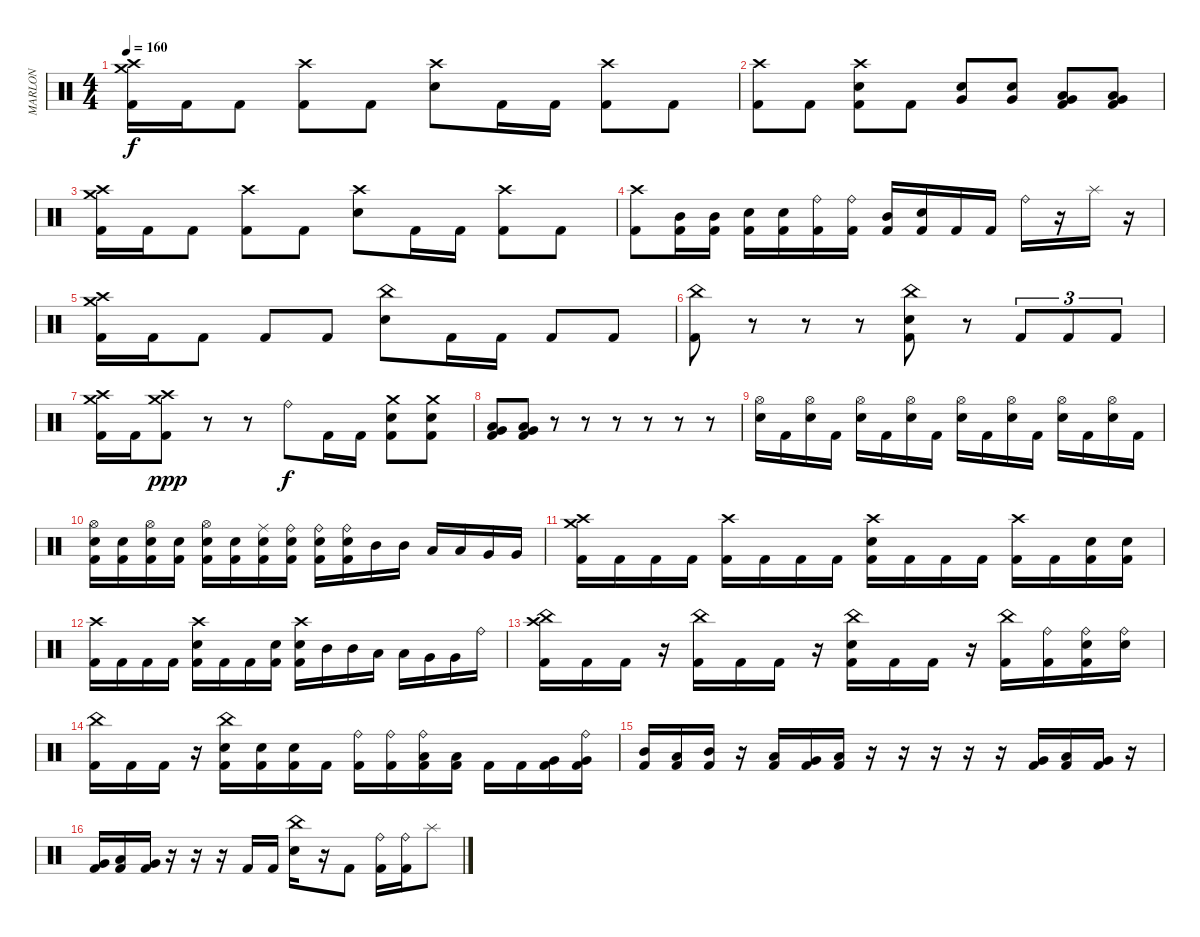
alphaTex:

\track ("MARLON" "MARLON") {instrument percussion}
\staff {score}
\articulation defaults
\ts (4 4)
\tempo 160
\clef neutral
\ks c
("Crash medium (hit)" "Crash high (hit)" "Kick (hit) 2").16{dy f} "Kick (hit) 2".16 "Kick (hit) 2".8 ("Crash high (hit)" "Kick (hit) 2").8 "Kick (hit) 2".8 ("Crash high (hit)" "Electric Snare (hit)").8 "Kick (hit) 2".16 "Kick (hit) 2".16 ("Crash high (hit)" "Kick (hit) 2").8 "Kick (hit) 2".8 |
("Crash high (hit)" "Kick (hit) 2").8 "Kick (hit) 2".8 ("Crash high (hit)" "Electric Snare (hit)" "Kick (hit) 2").8 "Kick (hit) 2".8 ("Very Low Tom (hit)" "Electric Snare (hit)").8 ("Very Low Tom (hit)" "Electric Snare (hit)").8 ("Low Tom (hit)" "Very Low Tom (hit)" "Kick (hit) 2").8 ("Low Tom (hit)" "Very Low Tom (hit)" "Kick (hit) 2").8 |
("Crash medium (hit)" "Crash high (hit)" "Kick (hit) 2").16 "Kick (hit) 2".16 "Kick (hit) 2".8 ("Crash high (hit)" "Kick (hit) 2").8 "Kick (hit) 2".8 ("Crash high (hit)" "Electric Snare (hit)").8 "Kick (hit) 2".16 "Kick (hit) 2".16 ("Crash high (hit)" "Kick (hit) 2").8 "Kick (hit) 2".8 |
("Crash high (hit)" "Kick (hit) 2").8 ("Mid Tom (hit)" "Kick (hit) 2").16 ("Mid Tom (hit)" "Kick (hit) 2").16 ("Electric Snare (hit)" "Kick (hit) 2").16 ("Electric Snare (hit)" "Kick (hit) 2").16 ("Ride (bell)" "Kick (hit) 2").16 ("Ride (bell)" "Kick (hit) 2").16 ("Mid Tom (hit)" "Kick (hit) 2").16 ("Electric Snare (hit)" "Kick (hit) 2").16 "Kick (hit) 2".16 "Kick (hit) 2".16 "Ride (bell)".16 r.16 "Splash (hit)".16 r.16 |
("Crash medium (hit)" "Crash high (hit)" "Kick (hit) 2").16 "Kick (hit) 2".16 "Kick (hit) 2".8 "Kick (hit) 2".8 "Kick (hit) 2".8 ("China (hit)" "Electric Snare (hit)").8 "Kick (hit) 2".16 "Kick (hit) 2".16 "Kick (hit) 2".8 "Kick (hit) 2".8 |
("China (hit)" "Kick (hit) 2").8 r.8 r.8 r.8 ("China (hit)" "Electric Snare (hit)" "Kick (hit) 2").8 r.8 "Kick (hit) 2".8{tu (3 2)} "Kick (hit) 2".8{tu (3 2)} "Kick (hit) 2".8{tu (3 2)} |
("Crash medium (hit)" "Crash high (hit)" "Kick (hit) 2").16 "Kick (hit) 2".16 ("Crash medium (hit)" "Crash high (hit)" "Kick (hit) 2").8{dy ppp} r.8 r.8 "Ride (bell)".8{dy f} "Kick (hit) 2".16 "Kick (hit) 2".16 ("Crash medium (hit)" "Electric Snare (hit)" "Kick (hit) 2").8 ("Crash medium (hit)" "Electric Snare (hit)" "Kick (hit) 2").8 |
("Low Floor Tom (hit)" "Very Low Tom (hit)" "Kick (hit) 2").8 ("Low Floor Tom (hit)" "Very Low Tom (hit)" "Kick (hit) 2").8 r.8 r.8 r.8 r.8 r.8 r.8 |
("Hi-Hat (open)" "Electric Snare (hit)").16 "Kick (hit) 2".16 ("Hi-Hat (open)" "Electric Snare (hit)").16 "Kick (hit) 2".16 ("Hi-Hat (open)" "Electric Snare (hit)").16 "Kick (hit) 2".16 ("Hi-Hat (open)" "Electric Snare (hit)").16 "Kick (hit) 2".16 ("Hi-Hat (open)" "Electric Snare (hit)").16 "Kick (hit) 2".16 ("Hi-Hat (open)" "Electric Snare (hit)").16 "Kick (hit) 2".16 ("Hi-Hat (open)" "Electric Snare (hit)").16 "Kick (hit) 2".16 ("Hi-Hat (open)" "Electric Snare (hit)").16 "Kick (hit) 2".16 |
("Hi-Hat (open)" "Electric Snare (hit)" "Kick (hit) 2").16 ("Electric Snare (hit)" "Kick (hit) 2").16 ("Hi-Hat (open)" "Electric Snare (hit)" "Kick (hit) 2").16 ("Electric Snare (hit)" "Kick (hit) 2").16 ("Hi-Hat (open)" "Electric Snare (hit)" "Kick (hit) 2").16 ("Electric Snare (hit)" "Kick (hit) 2").16 ("Ride (middle)" "Electric Snare (hit)" "Kick (hit) 2").16 ("Ride (bell)" "Electric Snare (hit)" "Kick (hit) 2").16 ("Ride (bell)" "Electric Snare (hit)" "Kick (hit) 2").16 ("Ride (bell)" "Electric Snare (hit)" "Kick (hit) 2").16 "Mid Tom (hit)".16 "Mid Tom (hit)".16 "Low Tom (hit)".16 "Low Tom (hit)".16 "Very Low Tom (hit)".16 "Very Low Tom (hit)".16 |
("Crash high (hit)" "Crash medium (hit)" "Kick (hit) 2").16 "Kick (hit) 2".16 "Kick (hit) 2".16 "Kick (hit) 2".16 ("Crash high (hit)" "Kick (hit) 2").16 "Kick (hit) 2".16 "Kick (hit) 2".16 "Kick (hit) 2".16 ("Crash high (hit)" "Electric Snare (hit)" "Kick (hit) 2").16 "Kick (hit) 2".16 "Kick (hit) 2".16 "Kick (hit) 2".16 ("Crash high (hit)" "Kick (hit) 2").16 "Kick (hit) 2".16 ("Electric Snare (hit)" "Kick (hit) 2").16 ("Electric Snare (hit)" "Kick (hit) 2").16 |
("Crash high (hit)" "Kick (hit) 2").16 "Kick (hit) 2".16 "Kick (hit) 2".16 "Kick (hit) 2".16 ("Crash high (hit)" "Electric Snare (hit)" "Kick (hit) 2").16 "Kick (hit) 2".16 "Kick (hit) 2".16 ("Electric Snare (hit)" "Kick (hit) 2").16 ("Crash high (hit)" "Electric Snare (hit)" "Kick (hit) 2").16 "Mid Tom (hit)".16 "Mid Tom (hit)".16 "Low Tom (hit)".16 "Low Tom (hit)".16 "Very Low Tom (hit)".16 "Very Low Tom (hit)".16 "Ride (bell)".16 |
("China (hit)" "Crash high (hit)" "Kick (hit) 2").16 "Kick (hit) 2".16 "Kick (hit) 2".16 r.16 ("China (hit)" "Kick (hit) 2").16 "Kick (hit) 2".16 "Kick (hit) 2".16 r.16 ("China (hit)" "Electric Snare (hit)" "Kick (hit) 2").16 "Kick (hit) 2".16 "Kick (hit) 2".16 r.16 ("China (hit)" "Kick (hit) 2").16 ("Ride (bell)" "Kick (hit) 2").16 ("Ride (bell)" "Electric Snare (hit)" "Kick (hit) 2").16 ("Ride (bell)" "Electric Snare (hit)").16 |
("China (hit)" "Kick (hit) 2").16 "Kick (hit) 2".16 "Kick (hit) 2".16 r.16 ("China (hit)" "Electric Snare (hit)" "Kick (hit) 2").16 ("Electric Snare (hit)" "Kick (hit) 2").16 ("Electric Snare (hit)" "Kick (hit) 2").16 "Kick (hit) 2".16 ("Ride (bell)" "Kick (hit) 2").16 ("Ride (bell)" "Kick (hit) 2").16 ("Ride (bell)" "Low Tom (hit)" "Kick (hit) 2").16 ("Low Tom (hit)" "Kick (hit) 2").16 "Kick (hit) 2".16 "Kick (hit) 2".16 ("Very Low Tom (hit)" "Kick (hit) 2").16 ("Ride (bell)" "Very Low Tom (hit)" "Kick (hit) 2").16 |
("Mid Tom (hit)" "Kick (hit) 2").16 ("Low Tom (hit)" "Kick (hit) 2").16 ("Mid Tom (hit)" "Kick (hit) 2").16 r.16 ("Low Tom (hit)" "Kick (hit) 2").16 ("Very Low Tom (hit)" "Kick (hit) 2").16 ("Low Tom (hit)" "Kick (hit) 2").16 r.16 r.16 r.16 r.16 r.16 ("Very Low Tom (hit)" "Kick (hit) 2").16 ("Low Floor Tom (hit)" "Kick (hit) 2").16 ("Very Low Tom (hit)" "Kick (hit) 2").16 r.16 |
("Very Low Tom (hit)" "Kick (hit) 2").16 ("Low Floor Tom (hit)" "Kick (hit) 2").16 ("Very Low Tom (hit)" "Kick (hit) 2").16 r.16 r.16 r.16 "Kick (hit) 2".16 "Kick (hit) 2".16 ("China (hit)" "Electric Snare (hit)").16 r.16 "Kick (hit) 2".8 ("Ride (bell)" "Kick (hit) 2").16 ("Ride (bell)" "Kick (hit) 2").16 "Splash (hit)".8
